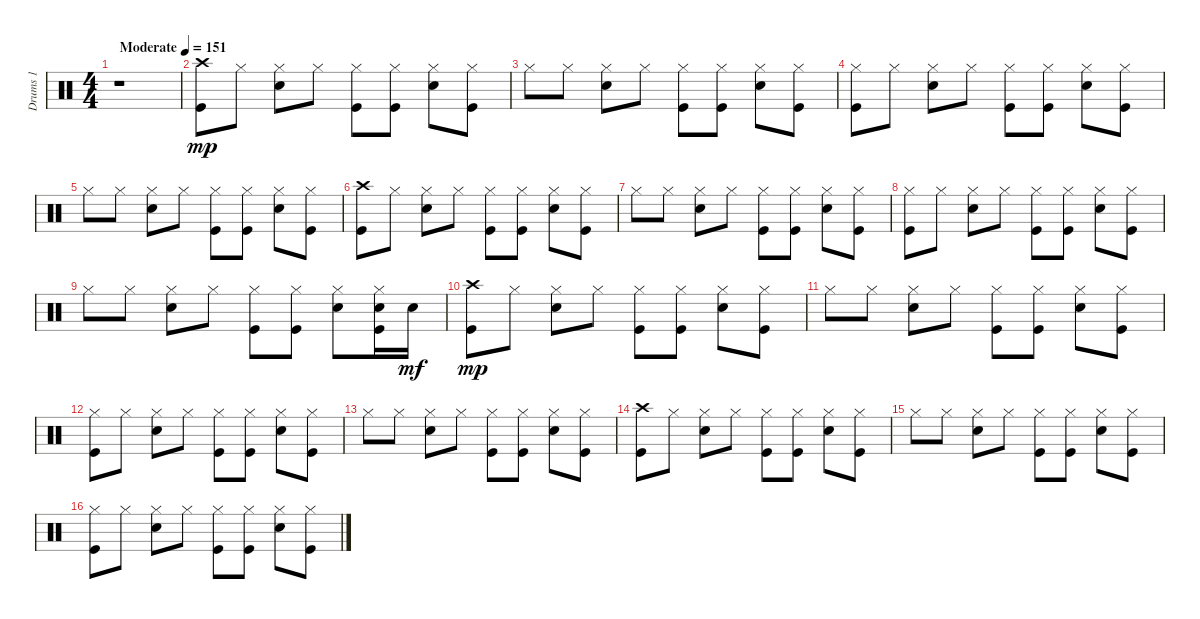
\track ("Drums 1" "Drums 1") {instrument percussion}
\staff {score}
\articulation defaults
\ts (4 4)
\tempo (151 "Moderate")
\clef neutral
\ks c
r.1{dy mp} |
("Crash high (hit)" "Kick (hit)").8 "Hi-Hat (closed)".8 ("Hi-Hat (closed)" "Snare (hit) 2").8 "Hi-Hat (closed)".8 ("Hi-Hat (closed)" "Kick (hit)").8 ("Kick (hit)" "Hi-Hat (closed)").8 ("Hi-Hat (closed)" "Snare (hit) 2").8 ("Hi-Hat (closed)" "Kick (hit)").8 |
"Hi-Hat (closed)".8 "Hi-Hat (closed)".8 ("Hi-Hat (closed)" "Snare (hit) 2").8 "Hi-Hat (closed)".8 ("Kick (hit)" "Hi-Hat (closed)").8 ("Kick (hit)" "Hi-Hat (closed)").8 ("Snare (hit) 2" "Hi-Hat (closed)").8 ("Hi-Hat (closed)" "Kick (hit)").8 |
("Hi-Hat (closed)" "Kick (hit)").8 "Hi-Hat (closed)".8 ("Hi-Hat (closed)" "Snare (hit) 2").8 "Hi-Hat (closed)".8 ("Hi-Hat (closed)" "Kick (hit)").8 ("Kick (hit)" "Hi-Hat (closed)").8 ("Hi-Hat (closed)" "Snare (hit) 2").8 ("Hi-Hat (closed)" "Kick (hit)").8 |
"Hi-Hat (closed)".8 "Hi-Hat (closed)".8 ("Hi-Hat (closed)" "Snare (hit) 2").8 "Hi-Hat (closed)".8 ("Kick (hit)" "Hi-Hat (closed)").8 ("Kick (hit)" "Hi-Hat (closed)").8 ("Snare (hit) 2" "Hi-Hat (closed)").8 ("Hi-Hat (closed)" "Kick (hit)").8 |
("Crash high (hit)" "Kick (hit)").8 "Hi-Hat (closed)".8 ("Hi-Hat (closed)" "Snare (hit) 2").8 "Hi-Hat (closed)".8 ("Hi-Hat (closed)" "Kick (hit)").8 ("Kick (hit)" "Hi-Hat (closed)").8 ("Hi-Hat (closed)" "Snare (hit) 2").8 ("Hi-Hat (closed)" "Kick (hit)").8 |
"Hi-Hat (closed)".8 "Hi-Hat (closed)".8 ("Hi-Hat (closed)" "Snare (hit) 2").8 "Hi-Hat (closed)".8 ("Kick (hit)" "Hi-Hat (closed)").8 ("Kick (hit)" "Hi-Hat (closed)").8 ("Snare (hit) 2" "Hi-Hat (closed)").8 ("Hi-Hat (closed)" "Kick (hit)").8 |
("Hi-Hat (closed)" "Kick (hit)").8 "Hi-Hat (closed)".8 ("Hi-Hat (closed)" "Snare (hit) 2").8 "Hi-Hat (closed)".8 ("Hi-Hat (closed)" "Kick (hit)").8 ("Kick (hit)" "Hi-Hat (closed)").8 ("Hi-Hat (closed)" "Snare (hit) 2").8 ("Hi-Hat (closed)" "Kick (hit)").8 |
"Hi-Hat (closed)".8 "Hi-Hat (closed)".8 ("Hi-Hat (closed)" "Snare (hit) 2").8 "Hi-Hat (closed)".8 ("Kick (hit)" "Hi-Hat (closed)").8 ("Kick (hit)" "Hi-Hat (closed)").8 ("Snare (hit) 2" "Hi-Hat (closed)").8 ("Snare (hit) 2" "Hi-Hat (closed)" "Kick (hit)").16 "Snare (hit) 2".16{dy mf} |
("Crash high (hit)" "Kick (hit)").8{dy mp} "Hi-Hat (closed)".8 ("Hi-Hat (closed)" "Snare (hit) 2").8 "Hi-Hat (closed)".8 ("Hi-Hat (closed)" "Kick (hit)").8 ("Kick (hit)" "Hi-Hat (closed)").8 ("Hi-Hat (closed)" "Snare (hit) 2").8 ("Hi-Hat (closed)" "Kick (hit)").8 |
"Hi-Hat (closed)".8 "Hi-Hat (closed)".8 ("Hi-Hat (closed)" "Snare (hit) 2").8 "Hi-Hat (closed)".8 ("Kick (hit)" "Hi-Hat (closed)").8 ("Kick (hit)" "Hi-Hat (closed)").8 ("Snare (hit) 2" "Hi-Hat (closed)").8 ("Hi-Hat (closed)" "Kick (hit)").8 |
("Hi-Hat (closed)" "Kick (hit)").8 "Hi-Hat (closed)".8 ("Hi-Hat (closed)" "Snare (hit) 2").8 "Hi-Hat (closed)".8 ("Hi-Hat (closed)" "Kick (hit)").8 ("Kick (hit)" "Hi-Hat (closed)").8 ("Hi-Hat (closed)" "Snare (hit) 2").8 ("Hi-Hat (closed)" "Kick (hit)").8 |
"Hi-Hat (closed)".8 "Hi-Hat (closed)".8 ("Hi-Hat (closed)" "Snare (hit) 2").8 "Hi-Hat (closed)".8 ("Kick (hit)" "Hi-Hat (closed)").8 ("Kick (hit)" "Hi-Hat (closed)").8 ("Snare (hit) 2" "Hi-Hat (closed)").8 ("Hi-Hat (closed)" "Kick (hit)").8 |
("Crash high (hit)" "Kick (hit)").8 "Hi-Hat (closed)".8 ("Hi-Hat (closed)" "Snare (hit) 2").8 "Hi-Hat (closed)".8 ("Hi-Hat (closed)" "Kick (hit)").8 ("Kick (hit)" "Hi-Hat (closed)").8 ("Hi-Hat (closed)" "Snare (hit) 2").8 ("Hi-Hat (closed)" "Kick (hit)").8 |
"Hi-Hat (closed)".8 "Hi-Hat (closed)".8 ("Hi-Hat (closed)" "Snare (hit) 2").8 "Hi-Hat (closed)".8 ("Kick (hit)" "Hi-Hat (closed)").8 ("Kick (hit)" "Hi-Hat (closed)").8 ("Snare (hit) 2" "Hi-Hat (closed)").8 ("Hi-Hat (closed)" "Kick (hit)").8 |
("Hi-Hat (closed)" "Kick (hit)").8 "Hi-Hat (closed)".8 ("Hi-Hat (closed)" "Snare (hit) 2").8 "Hi-Hat (closed)".8 ("Hi-Hat (closed)" "Kick (hit)").8 ("Kick (hit)" "Hi-Hat (closed)").8 ("Hi-Hat (closed)" "Snare (hit) 2").8 ("Hi-Hat (closed)" "Kick (hit)").8
